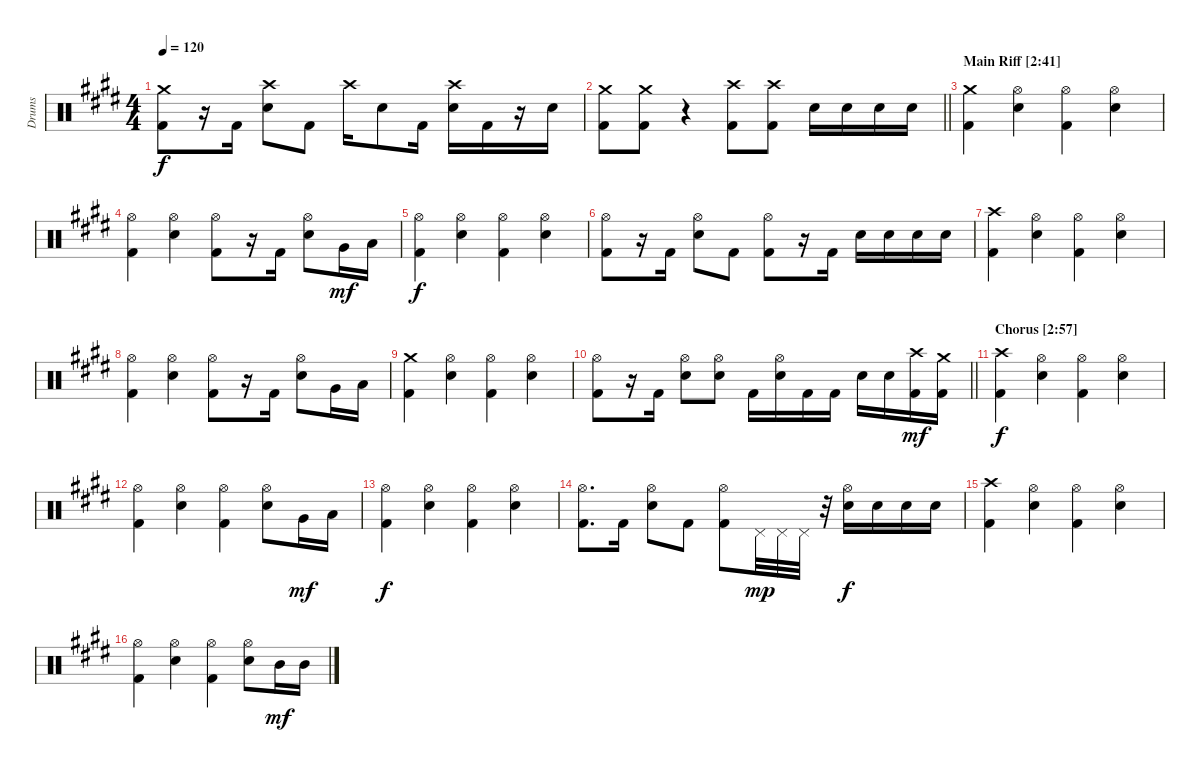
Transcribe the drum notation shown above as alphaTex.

\track ("Drums" "Drums") {instrument percussion}
\staff {score}
\articulation defaults
\ts (4 4)
\tempo 120
\clef neutral
\ks c#minor
("Crash medium (hit)" "Kick (hit) 2").8{dy f} r.16 "Kick (hit) 2".16 ("Crash high (hit)" "Snare (hit) 2").8 "Kick (hit) 2".8 "Crash high (hit)".16 "Snare (hit) 2".8 "Kick (hit) 2".16 ("Crash high (hit)" "Snare (hit) 2").16 "Kick (hit) 2".16 r.16 "Snare (hit) 2".16 |
\barLineRight lightlight
("Crash medium (hit)" "Kick (hit) 2").8 ("Crash medium (hit)" "Kick (hit) 2").8 r.4 ("Crash high (hit)" "Kick (hit) 2").8 ("Crash high (hit)" "Kick (hit) 2").8 "Snare (hit) 2".16 "Snare (hit) 2".16 "Snare (hit) 2".16 "Snare (hit) 2".16 |
\section ("" "Main Riff [2:41]")
("Crash medium (hit)" "Kick (hit) 2").4 ("Hi-Hat (open)" "Snare (hit) 2").4 ("Hi-Hat (open)" "Kick (hit) 2").4 ("Hi-Hat (open)" "Snare (hit) 2").4 |
("Hi-Hat (open)" "Kick (hit) 2").4 ("Hi-Hat (open)" "Snare (hit) 2").4 ("Hi-Hat (open)" "Kick (hit) 2").8 r.16 "Kick (hit) 2".16 ("Hi-Hat (open)" "Snare (hit) 2").8 "Very Low Tom (hit)".16{dy mf} "Low Floor Tom (hit)".16 |
("Hi-Hat (open)" "Kick (hit) 2").4{dy f} ("Hi-Hat (open)" "Snare (hit) 2").4 ("Hi-Hat (open)" "Kick (hit) 2").4 ("Hi-Hat (open)" "Snare (hit) 2").4 |
("Hi-Hat (open)" "Kick (hit) 2").8 r.16 "Kick (hit) 2".16 ("Hi-Hat (open)" "Snare (hit) 2").8 "Kick (hit) 2".8 ("Hi-Hat (open)" "Kick (hit) 2").8 r.16 "Kick (hit) 2".16 "Snare (hit) 2".16 "Snare (hit) 2".16 "Snare (hit) 2".16 "Snare (hit) 2".16 |
("Crash high (hit)" "Kick (hit) 2").4 ("Hi-Hat (open)" "Snare (hit) 2").4 ("Hi-Hat (open)" "Kick (hit) 2").4 ("Hi-Hat (open)" "Snare (hit) 2").4 |
("Hi-Hat (open)" "Kick (hit) 2").4 ("Hi-Hat (open)" "Snare (hit) 2").4 ("Hi-Hat (open)" "Kick (hit) 2").8 r.16 "Kick (hit) 2".16 ("Hi-Hat (open)" "Snare (hit) 2").8 "Very Low Tom (hit)".16 "Low Floor Tom (hit)".16 |
("Crash medium (hit)" "Kick (hit) 2").4 ("Hi-Hat (open)" "Snare (hit) 2").4 ("Hi-Hat (open)" "Kick (hit) 2").4 ("Hi-Hat (open)" "Snare (hit) 2").4 |
\barLineRight lightlight
("Hi-Hat (open)" "Kick (hit) 2").8 r.16 "Kick (hit) 2".16 ("Hi-Hat (open)" "Snare (hit) 2").8 ("Hi-Hat (open)" "Snare (hit) 2").8 "Kick (hit) 2".16 ("Hi-Hat (open)" "Snare (hit) 2").16 "Kick (hit) 2".16 "Kick (hit) 2".16 "Snare (hit) 2".16 "Snare (hit) 2".16 ("Crash high (hit)" "Kick (hit) 2").16{dy mf} ("Crash medium (hit)" "Kick (hit) 2").16 |
\section ("" "Chorus [2:57]")
("Crash high (hit)" "Kick (hit) 2").4{dy f} ("Hi-Hat (open)" "Snare (hit) 2").4 ("Hi-Hat (open)" "Kick (hit) 2").4 ("Hi-Hat (open)" "Snare (hit) 2").4 |
("Hi-Hat (open)" "Kick (hit) 2").4 ("Hi-Hat (open)" "Snare (hit) 2").4 ("Hi-Hat (open)" "Kick (hit) 2").4 ("Hi-Hat (open)" "Snare (hit) 2").8 "Very Low Tom (hit)".16{dy mf} "Low Floor Tom (hit)".16 |
("Hi-Hat (open)" "Kick (hit) 2").4{dy f} ("Hi-Hat (open)" "Snare (hit) 2").4 ("Hi-Hat (open)" "Kick (hit) 2").4 ("Hi-Hat (open)" "Snare (hit) 2").4 |
("Hi-Hat (open)" "Kick (hit) 2").8{d} "Kick (hit) 2".16 ("Hi-Hat (open)" "Snare (hit) 2").8 "Kick (hit) 2".8 ("Hi-Hat (open)" "Kick (hit) 2").8 "Pedal Hi-Hat (hit)".32{dy mp} "Pedal Hi-Hat (hit)".32 "Pedal Hi-Hat (hit)".32 r.32 ("Hi-Hat (open)" "Snare (hit) 2").16{dy f} "Snare (hit) 2".16 "Snare (hit) 2".16 "Snare (hit) 2".16 |
("Crash high (hit)" "Kick (hit) 2").4 ("Hi-Hat (open)" "Snare (hit) 2").4 ("Hi-Hat (open)" "Kick (hit) 2").4 ("Hi-Hat (open)" "Snare (hit) 2").4 |
("Hi-Hat (open)" "Kick (hit) 2").4 ("Hi-Hat (open)" "Snare (hit) 2").4 ("Hi-Hat (open)" "Kick (hit) 2").4 ("Hi-Hat (open)" "Snare (hit) 2").8 "Mid Tom (hit)".16{dy mf} "Mid Tom (hit)".16
